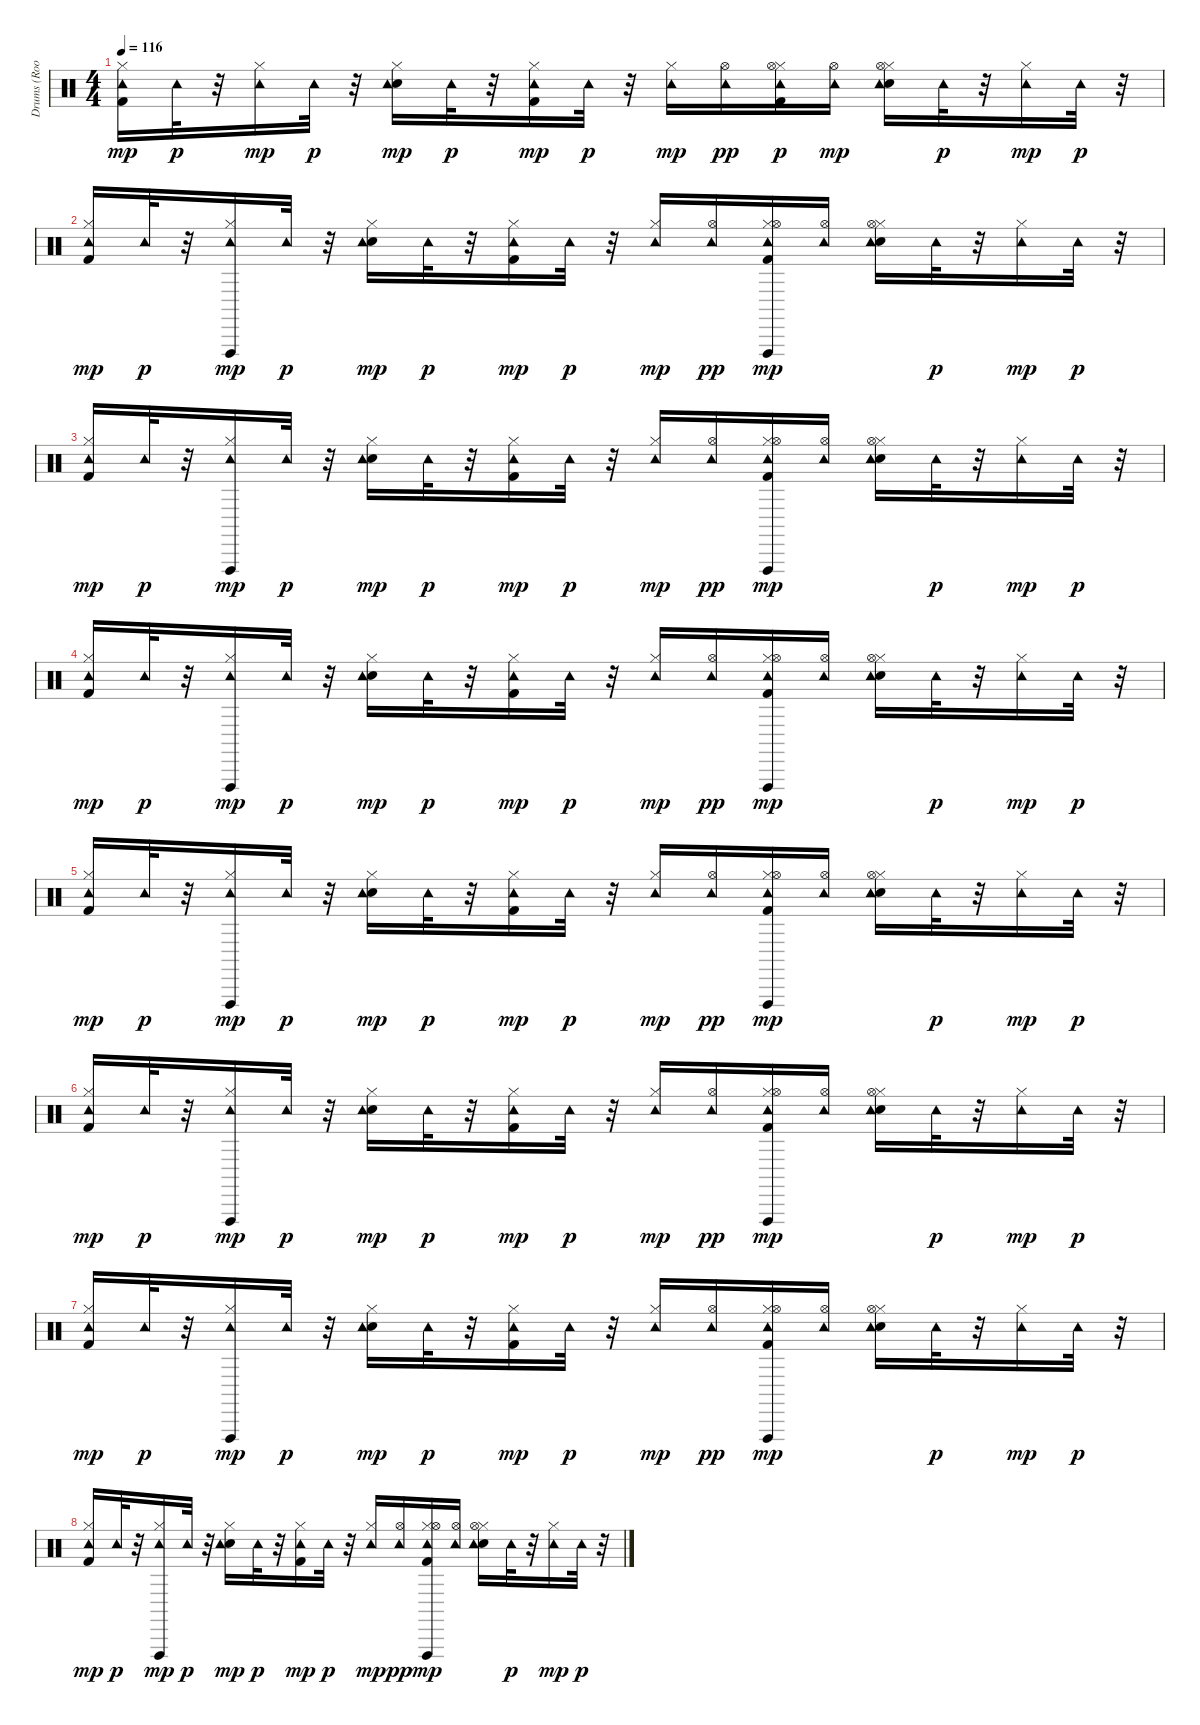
\track ("Drums (Room Kit)    " "Drums (Roo") {instrument percussion}
\staff {score}
\articulation defaults
\ts (4 4)
\tempo 116
\clef neutral
\ks c
("Hi-Hat (closed)" "Kick (hit) 2" "Tambourine (hit)").16{dy mp} "Tambourine (hit)".32{dy p} r.32 ("Hi-Hat (closed)" "Tambourine (hit)").16{dy mp} "Tambourine (hit)".32{dy p} r.32 ("Hi-Hat (closed)" "Snare (hit) 2" "Tambourine (hit)").16{dy mp} "Tambourine (hit)".32{dy p} r.32 ("Hi-Hat (closed)" "Kick (hit) 2" "Tambourine (hit)").16{dy mp} "Tambourine (hit)".32{dy p} r.32 ("Hi-Hat (closed)" "Tambourine (hit)").16{dy mp} ("Tambourine (hit)" "Hi-Hat (open)").16{dy pp} ("Hi-Hat (closed)" "Kick (hit) 2" "Tambourine (hit)" "Hi-Hat (open)").16{dy p} ("Tambourine (hit)" "Hi-Hat (open)").16{dy mp} ("Hi-Hat (closed)" "Snare (hit) 2" "Tambourine (hit)" "Hi-Hat (open)").16 "Tambourine (hit)".32{dy p} r.32 ("Hi-Hat (closed)" "Tambourine (hit)").16{dy mp} "Tambourine (hit)".32{dy p} r.32 |
("Kick (hit) 2" "Hi-Hat (closed)" "Tambourine (hit)").16{dy mp} "Tambourine (hit)".32{dy p} r.32 ("Hi-Hat (closed)" "Tambourine (hit)" "Vibraslap (hit)").16{dy mp} "Tambourine (hit)".32{dy p} r.32 ("Snare (hit) 2" "Hi-Hat (closed)" "Tambourine (hit)").16{dy mp} "Tambourine (hit)".32{dy p} r.32 ("Kick (hit) 2" "Hi-Hat (closed)" "Tambourine (hit)").16{dy mp} "Tambourine (hit)".32{dy p} r.32 ("Hi-Hat (closed)" "Tambourine (hit)").16{dy mp} ("Tambourine (hit)" "Hi-Hat (open)").16{dy pp} ("Kick (hit) 2" "Hi-Hat (closed)" "Tambourine (hit)" "Hi-Hat (open)" "Vibraslap (hit)").16{dy mp} ("Tambourine (hit)" "Hi-Hat (open)").16 ("Snare (hit) 2" "Hi-Hat (closed)" "Tambourine (hit)" "Hi-Hat (open)").16 "Tambourine (hit)".32{dy p} r.32 ("Hi-Hat (closed)" "Tambourine (hit)").16{dy mp} "Tambourine (hit)".32{dy p} r.32 |
("Hi-Hat (closed)" "Kick (hit) 2" "Tambourine (hit)").16{dy mp} "Tambourine (hit)".32{dy p} r.32 ("Hi-Hat (closed)" "Tambourine (hit)" "Vibraslap (hit)").16{dy mp} "Tambourine (hit)".32{dy p} r.32 ("Hi-Hat (closed)" "Snare (hit) 2" "Tambourine (hit)").16{dy mp} "Tambourine (hit)".32{dy p} r.32 ("Hi-Hat (closed)" "Kick (hit) 2" "Tambourine (hit)").16{dy mp} "Tambourine (hit)".32{dy p} r.32 ("Hi-Hat (closed)" "Tambourine (hit)").16{dy mp} ("Tambourine (hit)" "Hi-Hat (open)").16{dy pp} ("Hi-Hat (closed)" "Kick (hit) 2" "Tambourine (hit)" "Hi-Hat (open)" "Vibraslap (hit)").16{dy mp} ("Tambourine (hit)" "Hi-Hat (open)").16 ("Hi-Hat (closed)" "Snare (hit) 2" "Tambourine (hit)" "Hi-Hat (open)").16 "Tambourine (hit)".32{dy p} r.32 ("Hi-Hat (closed)" "Tambourine (hit)").16{dy mp} "Tambourine (hit)".32{dy p} r.32 |
("Kick (hit) 2" "Hi-Hat (closed)" "Tambourine (hit)").16{dy mp} "Tambourine (hit)".32{dy p} r.32 ("Hi-Hat (closed)" "Tambourine (hit)" "Vibraslap (hit)").16{dy mp} "Tambourine (hit)".32{dy p} r.32 ("Snare (hit) 2" "Hi-Hat (closed)" "Tambourine (hit)").16{dy mp} "Tambourine (hit)".32{dy p} r.32 ("Kick (hit) 2" "Hi-Hat (closed)" "Tambourine (hit)").16{dy mp} "Tambourine (hit)".32{dy p} r.32 ("Hi-Hat (closed)" "Tambourine (hit)").16{dy mp} ("Tambourine (hit)" "Hi-Hat (open)").16{dy pp} ("Kick (hit) 2" "Hi-Hat (closed)" "Tambourine (hit)" "Hi-Hat (open)" "Vibraslap (hit)").16{dy mp} ("Tambourine (hit)" "Hi-Hat (open)").16 ("Snare (hit) 2" "Hi-Hat (closed)" "Tambourine (hit)" "Hi-Hat (open)").16 "Tambourine (hit)".32{dy p} r.32 ("Hi-Hat (closed)" "Tambourine (hit)").16{dy mp} "Tambourine (hit)".32{dy p} r.32 |
("Hi-Hat (closed)" "Kick (hit) 2" "Tambourine (hit)").16{dy mp} "Tambourine (hit)".32{dy p} r.32 ("Hi-Hat (closed)" "Tambourine (hit)" "Vibraslap (hit)").16{dy mp} "Tambourine (hit)".32{dy p} r.32 ("Hi-Hat (closed)" "Snare (hit) 2" "Tambourine (hit)").16{dy mp} "Tambourine (hit)".32{dy p} r.32 ("Hi-Hat (closed)" "Kick (hit) 2" "Tambourine (hit)").16{dy mp} "Tambourine (hit)".32{dy p} r.32 ("Hi-Hat (closed)" "Tambourine (hit)").16{dy mp} ("Tambourine (hit)" "Hi-Hat (open)").16{dy pp} ("Hi-Hat (closed)" "Kick (hit) 2" "Tambourine (hit)" "Hi-Hat (open)" "Vibraslap (hit)").16{dy mp} ("Tambourine (hit)" "Hi-Hat (open)").16 ("Hi-Hat (closed)" "Snare (hit) 2" "Tambourine (hit)" "Hi-Hat (open)").16 "Tambourine (hit)".32{dy p} r.32 ("Hi-Hat (closed)" "Tambourine (hit)").16{dy mp} "Tambourine (hit)".32{dy p} r.32 |
("Kick (hit) 2" "Hi-Hat (closed)" "Tambourine (hit)").16{dy mp} "Tambourine (hit)".32{dy p} r.32 ("Hi-Hat (closed)" "Tambourine (hit)" "Vibraslap (hit)").16{dy mp} "Tambourine (hit)".32{dy p} r.32 ("Snare (hit) 2" "Hi-Hat (closed)" "Tambourine (hit)").16{dy mp} "Tambourine (hit)".32{dy p} r.32 ("Kick (hit) 2" "Hi-Hat (closed)" "Tambourine (hit)").16{dy mp} "Tambourine (hit)".32{dy p} r.32 ("Hi-Hat (closed)" "Tambourine (hit)").16{dy mp} ("Tambourine (hit)" "Hi-Hat (open)").16{dy pp} ("Kick (hit) 2" "Hi-Hat (closed)" "Tambourine (hit)" "Hi-Hat (open)" "Vibraslap (hit)").16{dy mp} ("Tambourine (hit)" "Hi-Hat (open)").16 ("Snare (hit) 2" "Hi-Hat (closed)" "Tambourine (hit)" "Hi-Hat (open)").16 "Tambourine (hit)".32{dy p} r.32 ("Hi-Hat (closed)" "Tambourine (hit)").16{dy mp} "Tambourine (hit)".32{dy p} r.32 |
("Hi-Hat (closed)" "Kick (hit) 2" "Tambourine (hit)").16{dy mp} "Tambourine (hit)".32{dy p} r.32 ("Hi-Hat (closed)" "Tambourine (hit)" "Vibraslap (hit)").16{dy mp} "Tambourine (hit)".32{dy p} r.32 ("Hi-Hat (closed)" "Snare (hit) 2" "Tambourine (hit)").16{dy mp} "Tambourine (hit)".32{dy p} r.32 ("Hi-Hat (closed)" "Kick (hit) 2" "Tambourine (hit)").16{dy mp} "Tambourine (hit)".32{dy p} r.32 ("Hi-Hat (closed)" "Tambourine (hit)").16{dy mp} ("Tambourine (hit)" "Hi-Hat (open)").16{dy pp} ("Hi-Hat (closed)" "Kick (hit) 2" "Tambourine (hit)" "Hi-Hat (open)" "Vibraslap (hit)").16{dy mp} ("Tambourine (hit)" "Hi-Hat (open)").16 ("Hi-Hat (closed)" "Snare (hit) 2" "Tambourine (hit)" "Hi-Hat (open)").16 "Tambourine (hit)".32{dy p} r.32 ("Hi-Hat (closed)" "Tambourine (hit)").16{dy mp} "Tambourine (hit)".32{dy p} r.32 |
("Kick (hit) 2" "Hi-Hat (closed)" "Tambourine (hit)").16{dy mp} "Tambourine (hit)".32{dy p} r.32 ("Hi-Hat (closed)" "Tambourine (hit)" "Vibraslap (hit)").16{dy mp} "Tambourine (hit)".32{dy p} r.32 ("Snare (hit) 2" "Hi-Hat (closed)" "Tambourine (hit)").16{dy mp} "Tambourine (hit)".32{dy p} r.32 ("Kick (hit) 2" "Hi-Hat (closed)" "Tambourine (hit)").16{dy mp} "Tambourine (hit)".32{dy p} r.32 ("Hi-Hat (closed)" "Tambourine (hit)").16{dy mp} ("Tambourine (hit)" "Hi-Hat (open)").16{dy pp} ("Kick (hit) 2" "Hi-Hat (closed)" "Tambourine (hit)" "Hi-Hat (open)" "Vibraslap (hit)").16{dy mp} ("Tambourine (hit)" "Hi-Hat (open)").16 ("Snare (hit) 2" "Hi-Hat (closed)" "Tambourine (hit)" "Hi-Hat (open)").16 "Tambourine (hit)".32{dy p} r.32 ("Hi-Hat (closed)" "Tambourine (hit)").16{dy mp} "Tambourine (hit)".32{dy p} r.32
